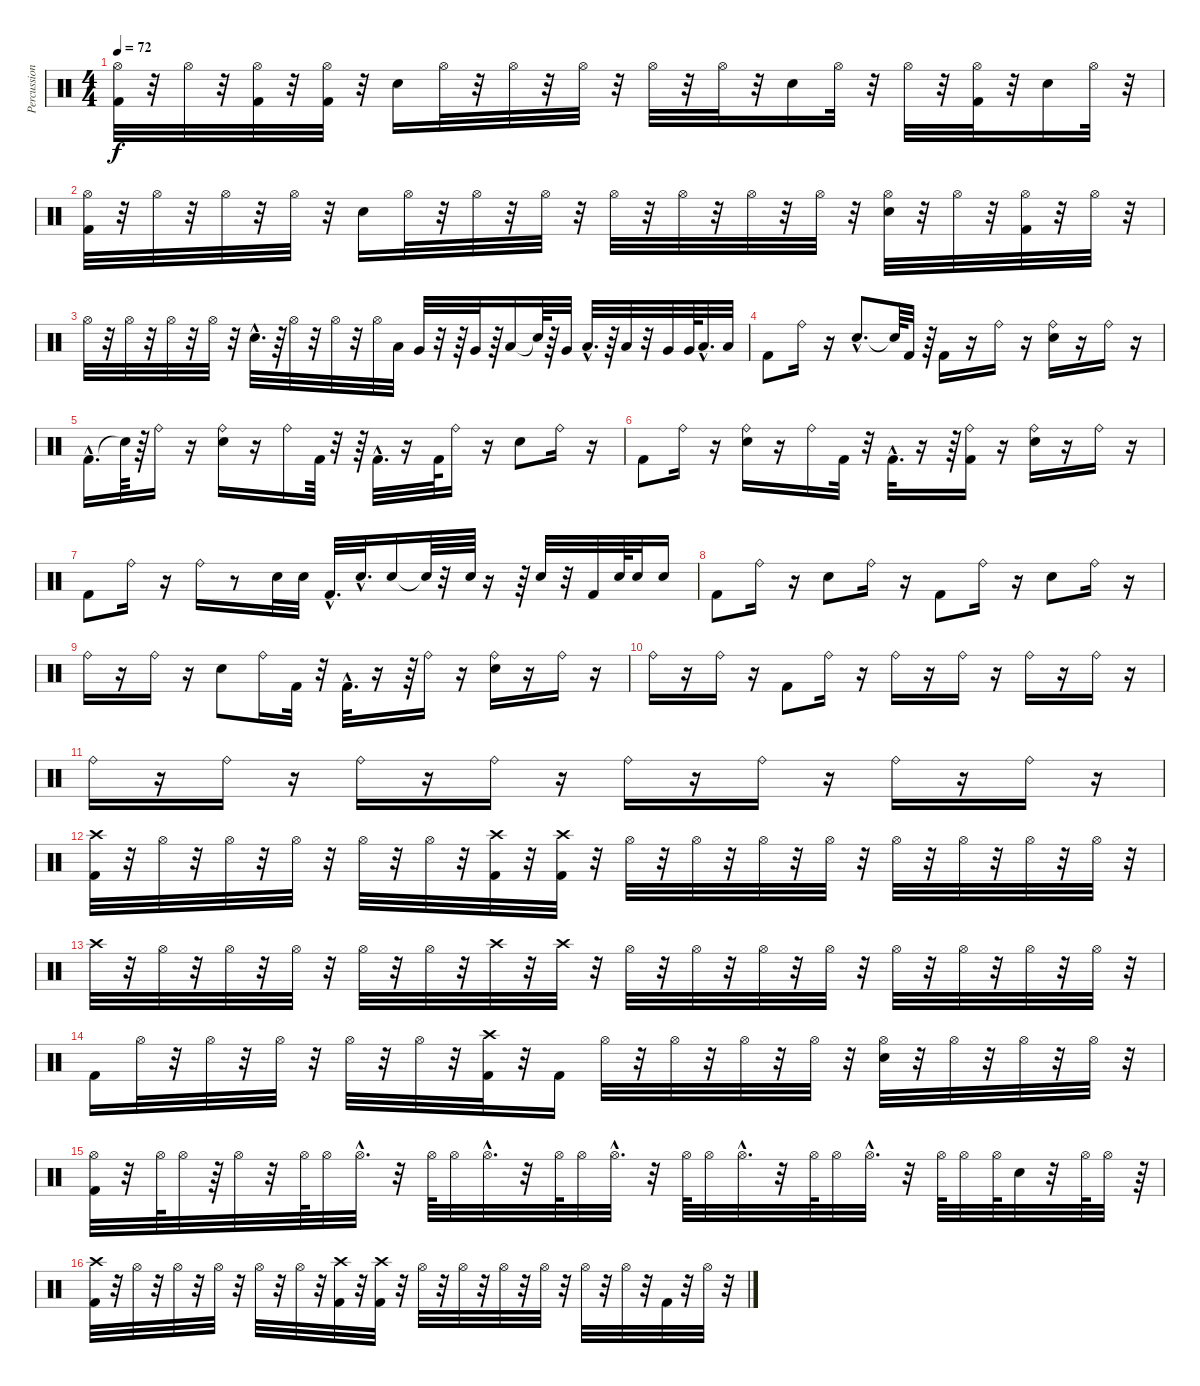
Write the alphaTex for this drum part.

\track ("Percussions" "Percussion") {instrument percussion}
\staff {score}
\articulation defaults
\ts (4 4)
\tempo 72
\clef neutral
\ks c
("Hi-Hat (open)" "Kick (hit) 2").32{dy f} r.32 "Hi-Hat (open)".32 r.32 ("Hi-Hat (open)" "Kick (hit) 2").32 r.32 ("Hi-Hat (open)" "Kick (hit) 2").32 r.32 "Snare (hit) 2".16 "Hi-Hat (open)".32 r.32 "Hi-Hat (open)".32 r.32 "Hi-Hat (open)".32 r.32 "Hi-Hat (open)".32 r.32 "Hi-Hat (open)".32 r.32 "Snare (hit) 2".16 "Hi-Hat (open)".32 r.32 "Hi-Hat (open)".32 r.32 ("Hi-Hat (open)" "Kick (hit) 2").32 r.32 "Snare (hit) 2".16 "Hi-Hat (open)".32 r.32 |
("Hi-Hat (open)" "Kick (hit) 2").32 r.32 "Hi-Hat (open)".32 r.32 "Hi-Hat (open)".32 r.32 "Hi-Hat (open)".32 r.32 "Snare (hit) 2".16 "Hi-Hat (open)".32 r.32 "Hi-Hat (open)".32 r.32 "Hi-Hat (open)".32 r.32 "Hi-Hat (open)".32 r.32 "Hi-Hat (open)".32 r.32 "Hi-Hat (open)".32 r.32 "Hi-Hat (open)".32 r.32 ("Snare (hit) 2" "Hi-Hat (open)").32 r.32 "Hi-Hat (open)".32 r.32 ("Hi-Hat (open)" "Kick (hit) 2").32 r.32 "Hi-Hat (open)".32 r.32 |
"Hi-Hat (open)".32 r.32 "Hi-Hat (open)".32 r.32 "Hi-Hat (open)".32 r.32 "Hi-Hat (open)".32 r.32 "Snare (hit) 2"{hac}.32{d} r.64 "Hi-Hat (open)".32 r.32 "Hi-Hat (open)".32 r.32 "Hi-Hat (open)".32 "Low Floor Tom (hit)".32 "Very Low Tom (hit)".32 r.32 r.64 "Very Low Tom (hit)".32 r.64 "Low Floor Tom (hit)".16 "Snare (hit)"{t}.64 r.64 "Very Low Tom (hit)".32 "Low Tom (hit)"{hac}.32{d} r.64 "Low Tom (hit)".32 r.32 "Very Low Tom (hit)".32 "Very Low Tom (hit)".64 "Low Floor Tom (hit)"{hac}.32{d} "Low Floor Tom (hit)".32 |
"Kick (hit) 2".8 "Ride (bell)".16 r.16 "Snare (hit) 2"{hac}.8{d} "Snare (hit)"{t}.64 "Kick (hit) 2".32 r.64 "Kick (hit) 2".16 r.16 "Ride (bell)".16 r.16 ("Snare (hit) 2" "Ride (bell)").16 r.16 "Ride (bell)".16 r.16 |
"Kick (hit) 2"{hac}.16{d} "Snare (hit)"{t}.64 r.64 "Ride (bell)".16 r.16 ("Snare (hit) 2" "Ride (bell)").16 r.16 "Ride (bell)".16 "Kick (hit) 2".64 r.32 r.64 "Kick (hit) 2"{hac}.32{d} r.16 "Kick (hit) 2".64 "Ride (bell)".16 r.16 "Snare (hit) 2".8 "Ride (bell)".16 r.16 |
"Kick (hit) 2".8 "Ride (bell)".16 r.16 ("Snare (hit) 2" "Ride (bell)").16 r.16 "Ride (bell)".16 "Kick (hit) 2".32 r.32 "Kick (hit) 2"{hac}.32{d} r.16 r.64 ("Ride (bell)" "Kick (hit) 2").16 r.16 ("Snare (hit) 2" "Ride (bell)").16 r.16 "Ride (bell)".16 r.16 |
"Kick (hit) 2".8 "Ride (bell)".16 r.16 "Ride (bell)".16 r.8 "Snare (hit) 2".32 "Snare (hit) 2".32 "Kick (hit) 2"{hac}.32{d} "Snare (hit) 2"{hac}.32{d} "Snare (hit) 2".16 "Snare (hit)"{t}.64 r.32 "Snare (hit) 2".64 r.16 r.64 "Snare (hit) 2".32 r.32 "Kick (hit) 2".32 "Snare (hit) 2".64 "Snare (hit) 2".32 "Snare (hit) 2".16 |
"Kick (hit) 2".8 "Ride (bell)".16 r.16 "Snare (hit) 2".8 "Ride (bell)".16 r.16 "Kick (hit) 2".8 "Ride (bell)".16 r.16 "Snare (hit) 2".8 "Ride (bell)".16 r.16 |
"Ride (bell)".16 r.16 "Ride (bell)".16 r.16 "Snare (hit) 2".8 "Ride (bell)".16 "Kick (hit) 2".32 r.32 "Kick (hit) 2"{hac}.32{d} r.16 r.64 "Ride (bell)".16 r.16 ("Ride (bell)" "Snare (hit) 2").16 r.16 "Ride (bell)".16 r.16 |
"Ride (bell)".16 r.16 "Ride (bell)".16 r.16 "Kick (hit) 2".8 "Ride (bell)".16 r.16 "Ride (bell)".16 r.16 "Ride (bell)".16 r.16 "Ride (bell)".16 r.16 "Ride (bell)".16 r.16 |
"Ride (bell)".16 r.16 "Ride (bell)".16 r.16 "Ride (bell)".16 r.16 "Ride (bell)".16 r.16 "Ride (bell)".16 r.16 "Ride (bell)".16 r.16 "Ride (bell)".16 r.16 "Ride (bell)".16 r.16 |
("Crash high (hit)" "Kick (hit) 2").32 r.32 "Hi-Hat (open)".32 r.32 "Hi-Hat (open)".32 r.32 "Hi-Hat (open)".32 r.32 "Hi-Hat (open)".32 r.32 "Hi-Hat (open)".32 r.32 ("Crash high (hit)" "Kick (hit) 2").32 r.32 ("Crash high (hit)" "Kick (hit) 2").32 r.32 "Hi-Hat (open)".32 r.32 "Hi-Hat (open)".32 r.32 "Hi-Hat (open)".32 r.32 "Hi-Hat (open)".32 r.32 "Hi-Hat (open)".32 r.32 "Hi-Hat (open)".32 r.32 "Hi-Hat (open)".32 r.32 "Hi-Hat (open)".32 r.32 |
"Crash high (hit)".32 r.32 "Hi-Hat (open)".32 r.32 "Hi-Hat (open)".32 r.32 "Hi-Hat (open)".32 r.32 "Hi-Hat (open)".32 r.32 "Hi-Hat (open)".32 r.32 "Crash high (hit)".32 r.32 "Crash high (hit)".32 r.32 "Hi-Hat (open)".32 r.32 "Hi-Hat (open)".32 r.32 "Hi-Hat (open)".32 r.32 "Hi-Hat (open)".32 r.32 "Hi-Hat (open)".32 r.32 "Hi-Hat (open)".32 r.32 "Hi-Hat (open)".32 r.32 "Hi-Hat (open)".32 r.32 |
"Kick (hit) 2".16 "Hi-Hat (open)".32 r.32 "Hi-Hat (open)".32 r.32 "Hi-Hat (open)".32 r.32 "Hi-Hat (open)".32 r.32 "Hi-Hat (open)".32 r.32 ("Crash high (hit)" "Kick (hit) 2").32 r.32 "Kick (hit) 2".16 "Hi-Hat (open)".32 r.32 "Hi-Hat (open)".32 r.32 "Hi-Hat (open)".32 r.32 "Hi-Hat (open)".32 r.32 ("Snare (hit) 2" "Hi-Hat (open)").32 r.32 "Hi-Hat (open)".32 r.32 "Hi-Hat (open)".32 r.32 "Hi-Hat (open)".32 r.32 |
("Hi-Hat (open)" "Kick (hit) 2").32 r.32 "Hi-Hat (open)".64 "Hi-Hat (open)".32 r.64 "Hi-Hat (open)".32 r.32 "Hi-Hat (open)".64 "Hi-Hat (open)".32 "Hi-Hat (open)"{hac}.32{d} r.32 "Hi-Hat (open)".64 "Hi-Hat (open)".32 "Hi-Hat (open)"{hac}.32{d} r.32 "Hi-Hat (open)".64 "Hi-Hat (open)".32 "Hi-Hat (open)"{hac}.32{d} r.32 "Hi-Hat (open)".64 "Hi-Hat (open)".32 "Hi-Hat (open)"{hac}.32{d} r.32 "Hi-Hat (open)".64 "Hi-Hat (open)".32 "Hi-Hat (open)"{hac}.32{d} r.32 "Hi-Hat (open)".64 "Hi-Hat (open)".32 "Hi-Hat (open)".64 "Snare (hit) 2".32 r.32 "Hi-Hat (open)".64 "Hi-Hat (open)".32 r.64 |
("Crash high (hit)" "Kick (hit) 2").32 r.32 "Hi-Hat (open)".32 r.32 "Hi-Hat (open)".32 r.32 "Hi-Hat (open)".32 r.32 "Hi-Hat (open)".32 r.32 "Hi-Hat (open)".32 r.32 ("Crash high (hit)" "Kick (hit) 2").32 r.32 ("Crash high (hit)" "Kick (hit) 2").32 r.32 "Hi-Hat (open)".32 r.32 "Hi-Hat (open)".32 r.32 "Hi-Hat (open)".32 r.32 "Hi-Hat (open)".32 r.32 "Hi-Hat (open)".32 r.32 "Hi-Hat (open)".32 r.32 "Kick (hit) 2".32 r.32 "Hi-Hat (open)".32 r.32
